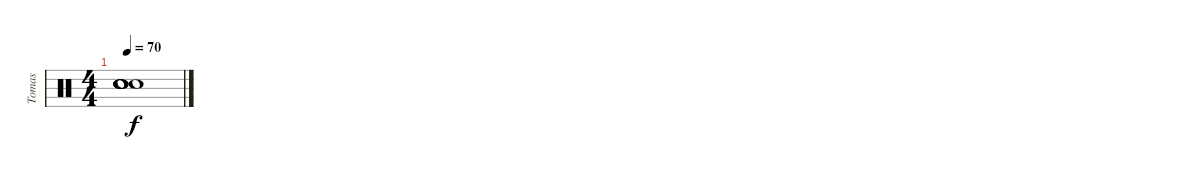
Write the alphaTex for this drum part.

\track ("Tomas" "Tomas") {instrument percussion}
\staff {score}
\articulation defaults
\ts (4 4)
\tempo 70
\clef neutral
\ks c
("Snare (hit)"{t} "Snare (hit)"{t} "Snare (hit)"{t} "Snare (hit)"{t} "Snare (hit)"{t} "Snare (hit)"{t}).1{dy f}
